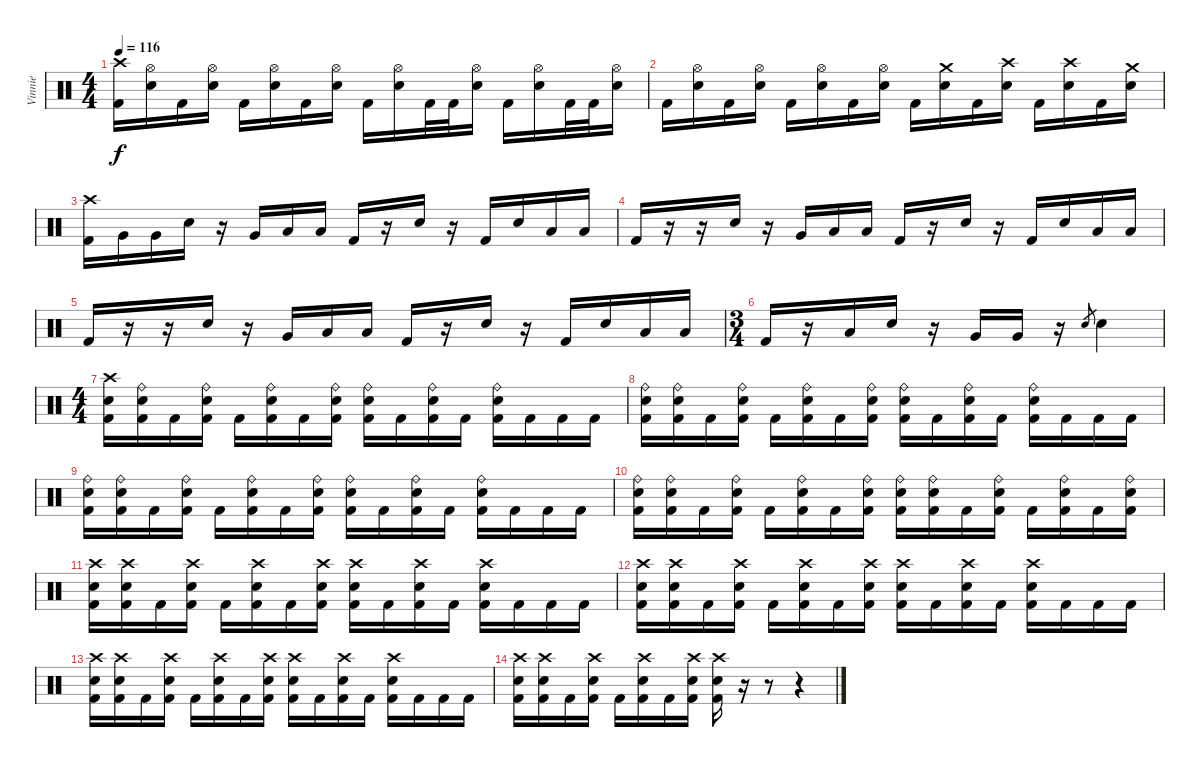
\track ("Vinnie" "Vinnie") {instrument percussion}
\staff {score}
\articulation defaults
\ts (4 4)
\tempo 116
\clef neutral
\ks c
("Crash high (hit)" "Kick (hit) 2").16{dy f} ("Hi-Hat (open)" "Electric Snare (hit)").16 "Kick (hit) 2".16 ("Hi-Hat (open)" "Electric Snare (hit)").16 "Kick (hit) 2".16 ("Hi-Hat (open)" "Electric Snare (hit)").16 "Kick (hit) 2".16 ("Hi-Hat (open)" "Electric Snare (hit)").16 "Kick (hit) 2".16 ("Hi-Hat (open)" "Electric Snare (hit)").16 "Kick (hit) 2".32 "Kick (hit) 2".32 ("Hi-Hat (open)" "Electric Snare (hit)").16 "Kick (hit) 2".16 ("Hi-Hat (open)" "Electric Snare (hit)").16 "Kick (hit) 2".32 "Kick (hit) 2".32 ("Hi-Hat (open)" "Electric Snare (hit)").16 |
"Kick (hit) 2".16 ("Hi-Hat (open)" "Electric Snare (hit)").16 "Kick (hit) 2".16 ("Hi-Hat (open)" "Electric Snare (hit)").16 "Kick (hit) 2".16 ("Hi-Hat (open)" "Electric Snare (hit)").16 "Kick (hit) 2".16 ("Hi-Hat (open)" "Electric Snare (hit)").16 "Kick (hit) 2".16 ("Crash medium (hit)" "Electric Snare (hit)").16 "Kick (hit) 2".16 ("Crash high (hit)" "Electric Snare (hit)").16 "Kick (hit) 2".16 ("Crash high (hit)" "Electric Snare (hit)").16 "Kick (hit) 2".16 ("Crash medium (hit)" "Electric Snare (hit)").16 |
("Crash high (hit)" "Kick (hit) 2").16 "Very Low Tom (hit)".16 "Very Low Tom (hit)".16 "Electric Snare (hit)".16 r.16 "Very Low Tom (hit)".16 "Low Floor Tom (hit)".16 "Low Floor Tom (hit)".16 "Kick (hit) 2".16 r.16 "Electric Snare (hit)".16 r.16 "Kick (hit) 2".16 "Electric Snare (hit)".16 "Low Floor Tom (hit)".16 "Low Floor Tom (hit)".16 |
"Kick (hit) 2".16 r.16 r.16 "Electric Snare (hit)".16 r.16 "Very Low Tom (hit)".16 "Low Floor Tom (hit)".16 "Low Floor Tom (hit)".16 "Kick (hit) 2".16 r.16 "Electric Snare (hit)".16 r.16 "Kick (hit) 2".16 "Electric Snare (hit)".16 "Low Floor Tom (hit)".16 "Low Floor Tom (hit)".16 |
"Kick (hit) 2".16 r.16 r.16 "Electric Snare (hit)".16 r.16 "Very Low Tom (hit)".16 "Low Floor Tom (hit)".16 "Low Floor Tom (hit)".16 "Kick (hit) 2".16 r.16 "Electric Snare (hit)".16 r.16 "Kick (hit) 2".16 "Electric Snare (hit)".16 "Low Floor Tom (hit)".16 "Low Floor Tom (hit)".16 |
\ts (3 4)
"Kick (hit) 2".16 r.16 "Low Floor Tom (hit)".16 "Electric Snare (hit)".16 r.16 "Very Low Tom (hit)".16 "Very Low Tom (hit)".16 r.16 "Electric Snare (hit)".8{gr} "Electric Snare (hit)".4 |
\ts (4 4)
("Crash high (hit)" "Electric Snare (hit)" "Kick (hit) 2").16 ("Ride (bell)" "Electric Snare (hit)" "Kick (hit) 2").16 "Kick (hit) 2".16 ("Ride (bell)" "Electric Snare (hit)" "Kick (hit) 2").16 "Kick (hit) 2".16 ("Ride (bell)" "Electric Snare (hit)" "Kick (hit) 2").16 "Kick (hit) 2".16 ("Ride (bell)" "Electric Snare (hit)" "Kick (hit) 2").16 ("Ride (bell)" "Electric Snare (hit)" "Kick (hit) 2").16 "Kick (hit) 2".16 ("Ride (bell)" "Electric Snare (hit)" "Kick (hit) 2").16 "Kick (hit) 2".16 ("Ride (bell)" "Electric Snare (hit)" "Kick (hit) 2").16 "Kick (hit) 2".16 "Kick (hit) 2".16 "Kick (hit) 2".16 |
("Ride (bell)" "Electric Snare (hit)" "Kick (hit) 2").16 ("Ride (bell)" "Electric Snare (hit)" "Kick (hit) 2").16 "Kick (hit) 2".16 ("Ride (bell)" "Electric Snare (hit)" "Kick (hit) 2").16 "Kick (hit) 2".16 ("Ride (bell)" "Electric Snare (hit)" "Kick (hit) 2").16 "Kick (hit) 2".16 ("Ride (bell)" "Electric Snare (hit)" "Kick (hit) 2").16 ("Ride (bell)" "Electric Snare (hit)" "Kick (hit) 2").16 "Kick (hit) 2".16 ("Ride (bell)" "Electric Snare (hit)" "Kick (hit) 2").16 "Kick (hit) 2".16 ("Ride (bell)" "Electric Snare (hit)" "Kick (hit) 2").16 "Kick (hit) 2".16 "Kick (hit) 2".16 "Kick (hit) 2".16 |
("Ride (bell)" "Electric Snare (hit)" "Kick (hit) 2").16 ("Ride (bell)" "Electric Snare (hit)" "Kick (hit) 2").16 "Kick (hit) 2".16 ("Ride (bell)" "Electric Snare (hit)" "Kick (hit) 2").16 "Kick (hit) 2".16 ("Ride (bell)" "Electric Snare (hit)" "Kick (hit) 2").16 "Kick (hit) 2".16 ("Ride (bell)" "Electric Snare (hit)" "Kick (hit) 2").16 ("Ride (bell)" "Electric Snare (hit)" "Kick (hit) 2").16 "Kick (hit) 2".16 ("Ride (bell)" "Electric Snare (hit)" "Kick (hit) 2").16 "Kick (hit) 2".16 ("Ride (bell)" "Electric Snare (hit)" "Kick (hit) 2").16 "Kick (hit) 2".16 "Kick (hit) 2".16 "Kick (hit) 2".16 |
("Ride (bell)" "Electric Snare (hit)" "Kick (hit) 2").16 ("Ride (bell)" "Electric Snare (hit)" "Kick (hit) 2").16 "Kick (hit) 2".16 ("Ride (bell)" "Electric Snare (hit)" "Kick (hit) 2").16 "Kick (hit) 2".16 ("Ride (bell)" "Electric Snare (hit)" "Kick (hit) 2").16 "Kick (hit) 2".16 ("Ride (bell)" "Electric Snare (hit)" "Kick (hit) 2").16 ("Ride (bell)" "Electric Snare (hit)" "Kick (hit) 2").16 ("Ride (bell)" "Electric Snare (hit)" "Kick (hit) 2").16 "Kick (hit) 2".16 ("Ride (bell)" "Electric Snare (hit)" "Kick (hit) 2").16 "Kick (hit) 2".16 ("Ride (bell)" "Electric Snare (hit)" "Kick (hit) 2").16 "Kick (hit) 2".16 ("Ride (bell)" "Electric Snare (hit)" "Kick (hit) 2").16 |
("Crash high (hit)" "Electric Snare (hit)" "Kick (hit) 2").16 ("Crash high (hit)" "Electric Snare (hit)" "Kick (hit) 2").16 "Kick (hit) 2".16 ("Crash high (hit)" "Electric Snare (hit)" "Kick (hit) 2").16 "Kick (hit) 2".16 ("Crash high (hit)" "Electric Snare (hit)" "Kick (hit) 2").16 "Kick (hit) 2".16 ("Crash high (hit)" "Electric Snare (hit)" "Kick (hit) 2").16 ("Crash high (hit)" "Electric Snare (hit)" "Kick (hit) 2").16 "Kick (hit) 2".16 ("Crash high (hit)" "Electric Snare (hit)" "Kick (hit) 2").16 "Kick (hit) 2".16 ("Crash high (hit)" "Electric Snare (hit)" "Kick (hit) 2").16 "Kick (hit) 2".16 "Kick (hit) 2".16 "Kick (hit) 2".16 |
("Crash high (hit)" "Electric Snare (hit)" "Kick (hit) 2").16 ("Crash high (hit)" "Electric Snare (hit)" "Kick (hit) 2").16 "Kick (hit) 2".16 ("Crash high (hit)" "Electric Snare (hit)" "Kick (hit) 2").16 "Kick (hit) 2".16 ("Crash high (hit)" "Electric Snare (hit)" "Kick (hit) 2").16 "Kick (hit) 2".16 ("Crash high (hit)" "Electric Snare (hit)" "Kick (hit) 2").16 ("Crash high (hit)" "Electric Snare (hit)" "Kick (hit) 2").16 "Kick (hit) 2".16 ("Crash high (hit)" "Electric Snare (hit)" "Kick (hit) 2").16 "Kick (hit) 2".16 ("Crash high (hit)" "Electric Snare (hit)" "Kick (hit) 2").16 "Kick (hit) 2".16 "Kick (hit) 2".16 "Kick (hit) 2".16 |
("Crash high (hit)" "Electric Snare (hit)" "Kick (hit) 2").16 ("Crash high (hit)" "Electric Snare (hit)" "Kick (hit) 2").16 "Kick (hit) 2".16 ("Crash high (hit)" "Electric Snare (hit)" "Kick (hit) 2").16 "Kick (hit) 2".16 ("Crash high (hit)" "Electric Snare (hit)" "Kick (hit) 2").16 "Kick (hit) 2".16 ("Crash high (hit)" "Electric Snare (hit)" "Kick (hit) 2").16 ("Crash high (hit)" "Electric Snare (hit)" "Kick (hit) 2").16 "Kick (hit) 2".16 ("Crash high (hit)" "Electric Snare (hit)" "Kick (hit) 2").16 "Kick (hit) 2".16 ("Crash high (hit)" "Electric Snare (hit)" "Kick (hit) 2").16 "Kick (hit) 2".16 "Kick (hit) 2".16 "Kick (hit) 2".16 |
("Crash high (hit)" "Electric Snare (hit)" "Kick (hit) 2").16 ("Crash high (hit)" "Electric Snare (hit)" "Kick (hit) 2").16 "Kick (hit) 2".16 ("Crash high (hit)" "Electric Snare (hit)" "Kick (hit) 2").16 "Kick (hit) 2".16 ("Crash high (hit)" "Electric Snare (hit)" "Kick (hit) 2").16 "Kick (hit) 2".16 ("Crash high (hit)" "Electric Snare (hit)" "Kick (hit) 2").16 ("Crash high (hit)" "Electric Snare (hit)" "Kick (hit) 2").16 r.16 r.8 r.4
